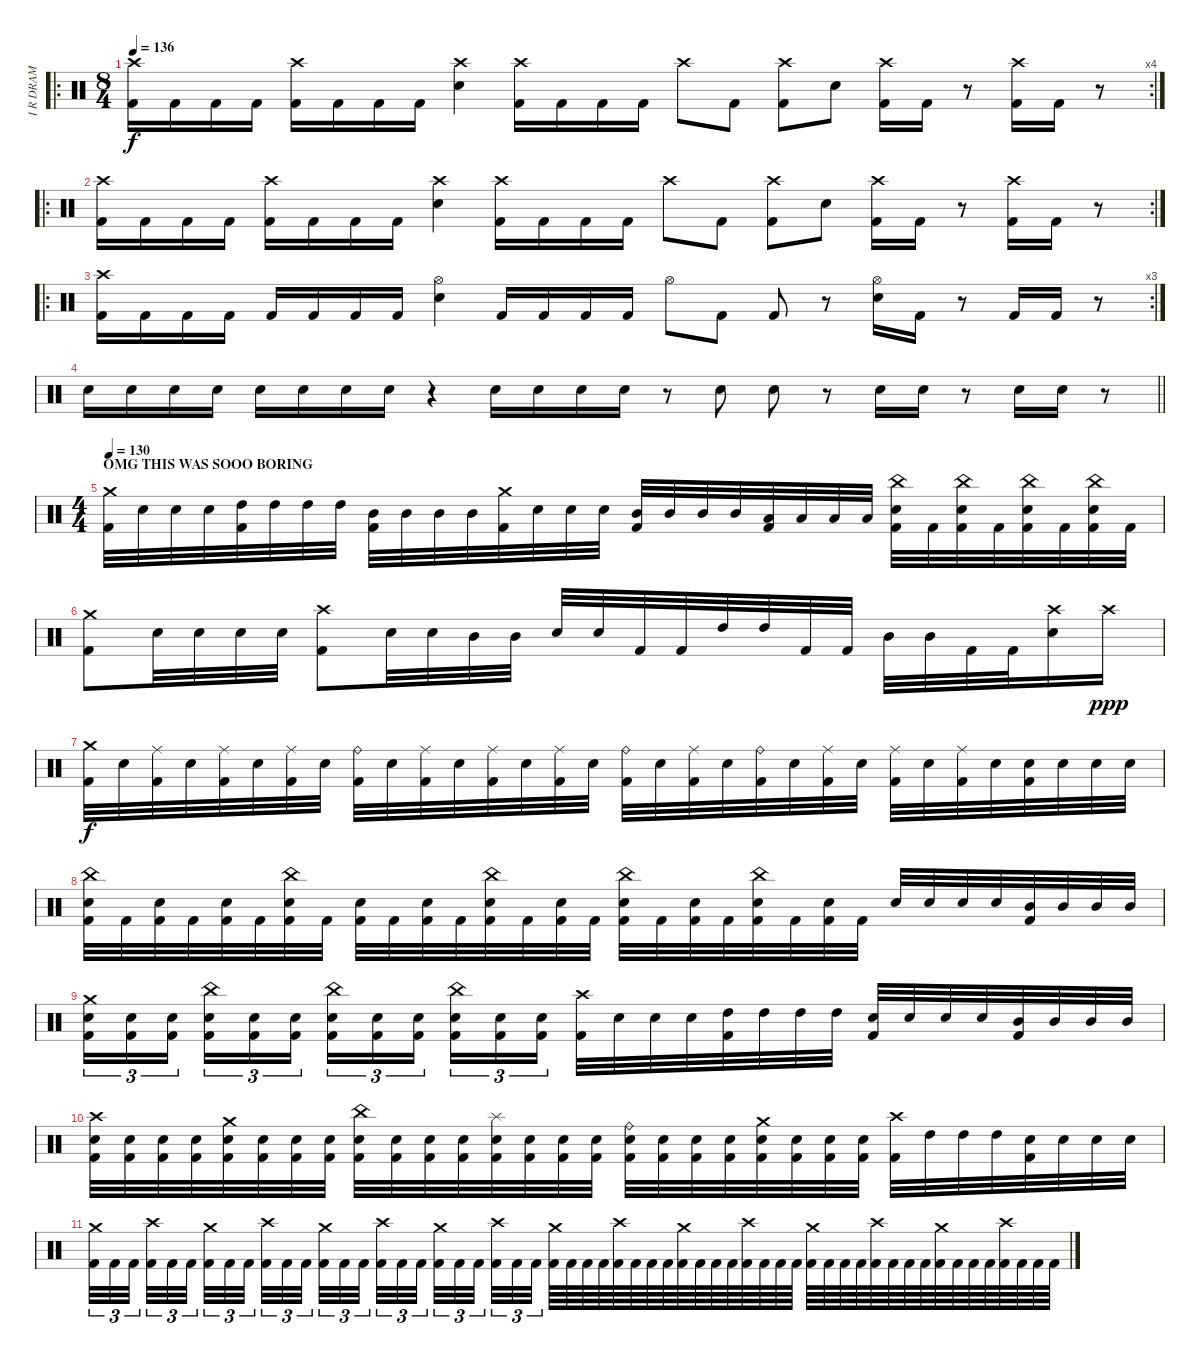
\track ("I R DRAM" "I R DRAM") {instrument percussion}
\staff {score}
\articulation defaults
\ro
\rc 4
\ts (8 4)
\tempo 136
\clef neutral
\ks c
("Crash high (hit)" "Kick (hit) 2").16{dy f} "Kick (hit) 2".16 "Kick (hit) 2".16 "Kick (hit) 2".16 ("Crash high (hit)" "Kick (hit) 2").16 "Kick (hit) 2".16 "Kick (hit) 2".16 "Kick (hit) 2".16 ("Crash high (hit)" "Electric Snare (hit)").4 ("Crash high (hit)" "Kick (hit) 2").16 "Kick (hit) 2".16 "Kick (hit) 2".16 "Kick (hit) 2".16 "Crash high (hit)".8 "Kick (hit) 2".8 ("Crash high (hit)" "Kick (hit) 2").8 "Electric Snare (hit)".8 ("Crash high (hit)" "Kick (hit) 2").16 "Kick (hit) 2".16 r.8 ("Crash high (hit)" "Kick (hit) 2").16 "Kick (hit) 2".16 r.8 |
\ro
\rc 2
("Crash high (hit)" "Kick (hit) 2").16 "Kick (hit) 2".16 "Kick (hit) 2".16 "Kick (hit) 2".16 ("Crash high (hit)" "Kick (hit) 2").16 "Kick (hit) 2".16 "Kick (hit) 2".16 "Kick (hit) 2".16 ("Crash high (hit)" "Electric Snare (hit)").4 ("Crash high (hit)" "Kick (hit) 2").16 "Kick (hit) 2".16 "Kick (hit) 2".16 "Kick (hit) 2".16 "Crash high (hit)".8 "Kick (hit) 2".8 ("Crash high (hit)" "Kick (hit) 2").8 "Electric Snare (hit)".8 ("Crash high (hit)" "Kick (hit) 2").16 "Kick (hit) 2".16 r.8 ("Crash high (hit)" "Kick (hit) 2").16 "Kick (hit) 2".16 r.8 |
\ro
\rc 3
("Crash high (hit)" "Kick (hit) 2").16 "Kick (hit) 2".16 "Kick (hit) 2".16 "Kick (hit) 2".16 "Kick (hit) 2".16 "Kick (hit) 2".16 "Kick (hit) 2".16 "Kick (hit) 2".16 ("Hi-Hat (open)" "Electric Snare (hit)").4 "Kick (hit) 2".16 "Kick (hit) 2".16 "Kick (hit) 2".16 "Kick (hit) 2".16 "Hi-Hat (open)".8 "Kick (hit) 2".8 "Kick (hit) 2".8 r.8 ("Hi-Hat (open)" "Electric Snare (hit)").16 "Kick (hit) 2".16 r.8 "Kick (hit) 2".16 "Kick (hit) 2".16 r.8 |
\barLineRight lightlight "Electric Snare (hit)".16 "Electric Snare (hit)".16 "Electric Snare (hit)".16 "Electric Snare (hit)".16 "Electric Snare (hit)".16 "Electric Snare (hit)".16 "Electric Snare (hit)".16 "Electric Snare (hit)".16
r.4 "Electric Snare (hit)".16 "Electric Snare (hit)".16 "Electric Snare (hit)".16 "Electric Snare (hit)".16 r.8 "Electric Snare (hit)".8 "Electric Snare (hit)".8 r.8 "Electric Snare (hit)".16 "Electric Snare (hit)".16 r.8 "Electric Snare (hit)".16 "Electric Snare (hit)".16 r.8 |
\ts (4 4)
\section ("" "OMG THIS WAS SOOO BORING")
\tempo 130
("Crash medium (hit)" "Kick (hit) 2").32 "Electric Snare (hit)".32 "Electric Snare (hit)".32 "Electric Snare (hit)".32 ("High Tom (hit)" "Kick (hit) 2").32 "High Tom (hit)".32 "High Tom (hit)".32 "High Tom (hit)".32 ("Mid Tom (hit)" "Kick (hit) 2").32 "Mid Tom (hit)".32 "Mid Tom (hit)".32 "Mid Tom (hit)".32 ("Crash medium (hit)" "Kick (hit) 2").32 "Electric Snare (hit)".32 "Electric Snare (hit)".32 "Electric Snare (hit)".32 ("Mid Tom (hit)" "Kick (hit) 2").32 "Mid Tom (hit)".32 "Mid Tom (hit)".32 "Mid Tom (hit)".32 ("Low Tom (hit)" "Kick (hit) 2").32 "Low Tom (hit)".32 "Low Tom (hit)".32 "Low Tom (hit)".32 ("China (hit)" "Electric Snare (hit)" "Kick (hit) 2").32 "Kick (hit) 2".32 ("China (hit)" "Electric Snare (hit)" "Kick (hit) 2").32 "Kick (hit) 2".32 ("China (hit)" "Electric Snare (hit)" "Kick (hit) 2").32 "Kick (hit) 2".32 ("China (hit)" "Electric Snare (hit)" "Kick (hit) 2").32 "Kick (hit) 2".32 |
("Crash medium (hit)" "Kick (hit) 2").8 "Electric Snare (hit)".32 "Electric Snare (hit)".32 "Electric Snare (hit)".32 "Electric Snare (hit)".32 ("Crash high (hit)" "Kick (hit) 2").8 "Electric Snare (hit)".32 "Electric Snare (hit)".32 "Mid Tom (hit)".32 "Mid Tom (hit)".32 "Electric Snare (hit)".32 "Electric Snare (hit)".32 "Kick (hit) 2".32 "Kick (hit) 2".32 "High Tom (hit)".32 "High Tom (hit)".32 "Kick (hit) 2".32 "Kick (hit) 2".32 "Mid Tom (hit)".32 "Mid Tom (hit)".32 "Kick (hit) 2".32 "Kick (hit) 2".32 ("Crash high (hit)" "Electric Snare (hit)").16 "Crash high (hit)".16{dy ppp} |
("Crash medium (hit)" "Kick (hit) 2").32{dy f} "Electric Snare (hit)".32 ("Ride (middle)" "Kick (hit) 2").32 "Electric Snare (hit)".32 ("Ride (middle)" "Kick (hit) 2").32 "Electric Snare (hit)".32 ("Ride (middle)" "Kick (hit) 2").32 "Electric Snare (hit)".32 ("Ride (bell)" "Kick (hit) 2").32 "Electric Snare (hit)".32 ("Ride (middle)" "Kick (hit) 2").32 "Electric Snare (hit)".32 ("Ride (middle)" "Kick (hit) 2").32 "Electric Snare (hit)".32 ("Ride (middle)" "Kick (hit) 2").32 "Electric Snare (hit)".32 ("Ride (bell)" "Kick (hit) 2").32 "Electric Snare (hit)".32 ("Ride (middle)" "Kick (hit) 2").32 "Electric Snare (hit)".32 ("Ride (bell)" "Kick (hit) 2").32 "Electric Snare (hit)".32 ("Ride (middle)" "Kick (hit) 2").32 "Electric Snare (hit)".32 ("Ride (middle)" "Kick (hit) 2").32 "Electric Snare (hit)".32 ("Ride (middle)" "Kick (hit) 2").32 "Electric Snare (hit)".32 ("Electric Snare (hit)" "Kick (hit) 2").32 "Electric Snare (hit)".32 "Electric Snare (hit)".32 "Electric Snare (hit)".32 |
("China (hit)" "Electric Snare (hit)" "Kick (hit) 2").32 "Kick (hit) 2".32 ("Electric Snare (hit)" "Kick (hit) 2").32 "Kick (hit) 2".32 ("Electric Snare (hit)" "Kick (hit) 2").32 "Kick (hit) 2".32 ("China (hit)" "Electric Snare (hit)" "Kick (hit) 2").32 "Kick (hit) 2".32 ("Electric Snare (hit)" "Kick (hit) 2").32 "Kick (hit) 2".32 ("Electric Snare (hit)" "Kick (hit) 2").32 "Kick (hit) 2".32 ("China (hit)" "Electric Snare (hit)" "Kick (hit) 2").32 "Kick (hit) 2".32 ("Electric Snare (hit)" "Kick (hit) 2").32 "Kick (hit) 2".32 ("China (hit)" "Electric Snare (hit)" "Kick (hit) 2").32 "Kick (hit) 2".32 ("Electric Snare (hit)" "Kick (hit) 2").32 "Kick (hit) 2".32 ("China (hit)" "Electric Snare (hit)" "Kick (hit) 2").32 "Kick (hit) 2".32 ("Electric Snare (hit)" "Kick (hit) 2").32 "Kick (hit) 2".32 "Electric Snare (hit)".32 "Electric Snare (hit)".32 "Electric Snare (hit)".32 "Electric Snare (hit)".32 ("Mid Tom (hit)" "Kick (hit) 2").32 "Mid Tom (hit)".32 "Mid Tom (hit)".32 "Mid Tom (hit)".32 |
("Crash medium (hit)" "Electric Snare (hit)" "Kick (hit) 2").16{tu (3 2)} ("Electric Snare (hit)" "Kick (hit) 2").16{tu (3 2)} ("Electric Snare (hit)" "Kick (hit) 2").16{tu (3 2) beam splitsecondary} ("China (hit)" "Electric Snare (hit)" "Kick (hit) 2").16{tu (3 2)} ("Electric Snare (hit)" "Kick (hit) 2").16{tu (3 2)} ("Electric Snare (hit)" "Kick (hit) 2").16{tu (3 2)} ("China (hit)" "Electric Snare (hit)" "Kick (hit) 2").16{tu (3 2)} ("Electric Snare (hit)" "Kick (hit) 2").16{tu (3 2)} ("Electric Snare (hit)" "Kick (hit) 2").16{tu (3 2) beam splitsecondary} ("China (hit)" "Electric Snare (hit)" "Kick (hit) 2").16{tu (3 2)} ("Electric Snare (hit)" "Kick (hit) 2").16{tu (3 2)} ("Electric Snare (hit)" "Kick (hit) 2").16{tu (3 2)} ("Crash high (hit)" "Kick (hit) 2").32 "Electric Snare (hit)".32 "Electric Snare (hit)".32 "Electric Snare (hit)".32 ("High Tom (hit)" "Kick (hit) 2").32 "High Tom (hit)".32 "High Tom (hit)".32 "High Tom (hit)".32 ("Electric Snare (hit)" "Kick (hit) 2").32 "Electric Snare (hit)".32 "Electric Snare (hit)".32 "Electric Snare (hit)".32 ("Mid Tom (hit)" "Kick (hit) 2").32 "Mid Tom (hit)".32 "Mid Tom (hit)".32 "Mid Tom (hit)".32 |
("Crash high (hit)" "Electric Snare (hit)" "Kick (hit) 2").32 ("Electric Snare (hit)" "Kick (hit) 2").32 ("Electric Snare (hit)" "Kick (hit) 2").32 ("Electric Snare (hit)" "Kick (hit) 2").32 ("Crash medium (hit)" "Electric Snare (hit)" "Kick (hit) 2").32 ("Electric Snare (hit)" "Kick (hit) 2").32 ("Electric Snare (hit)" "Kick (hit) 2").32 ("Electric Snare (hit)" "Kick (hit) 2").32 ("China (hit)" "Electric Snare (hit)" "Kick (hit) 2").32 ("Electric Snare (hit)" "Kick (hit) 2").32 ("Electric Snare (hit)" "Kick (hit) 2").32 ("Electric Snare (hit)" "Kick (hit) 2").32 ("Splash (hit)" "Electric Snare (hit)" "Kick (hit) 2").32 ("Electric Snare (hit)" "Kick (hit) 2").32 ("Electric Snare (hit)" "Kick (hit) 2").32 ("Electric Snare (hit)" "Kick (hit) 2").32 ("Ride (bell)" "Electric Snare (hit)" "Kick (hit) 2").32 ("Electric Snare (hit)" "Kick (hit) 2").32 ("Electric Snare (hit)" "Kick (hit) 2").32 ("Electric Snare (hit)" "Kick (hit) 2").32 ("Crash medium (hit)" "Electric Snare (hit)" "Kick (hit) 2").32 ("Electric Snare (hit)" "Kick (hit) 2").32 ("Electric Snare (hit)" "Kick (hit) 2").32 ("Electric Snare (hit)" "Kick (hit) 2").32 ("Crash high (hit)" "Kick (hit) 2").32 "High Tom (hit)".32 "High Tom (hit)".32 "High Tom (hit)".32 ("Electric Snare (hit)" "Kick (hit) 2").32 "Electric Snare (hit)".32 "Electric Snare (hit)".32 "Electric Snare (hit)".32 |
("Crash medium (hit)" "Kick (hit) 2").32{tu (3 2)} "Kick (hit) 2".32{tu (3 2)} "Kick (hit) 2".32{tu (3 2) beam splitsecondary} ("Crash high (hit)" "Kick (hit) 2").32{tu (3 2)} "Kick (hit) 2".32{tu (3 2)} "Kick (hit) 2".32{tu (3 2) beam splitsecondary} ("Crash medium (hit)" "Kick (hit) 2").32{tu (3 2)} "Kick (hit) 2".32{tu (3 2)} "Kick (hit) 2".32{tu (3 2) beam splitsecondary} ("Crash high (hit)" "Kick (hit) 2").32{tu (3 2)} "Kick (hit) 2".32{tu (3 2)} "Kick (hit) 2".32{tu (3 2)} ("Crash medium (hit)" "Kick (hit) 2").32{tu (3 2)} "Kick (hit) 2".32{tu (3 2)} "Kick (hit) 2".32{tu (3 2) beam splitsecondary} ("Crash high (hit)" "Kick (hit) 2").32{tu (3 2)} "Kick (hit) 2".32{tu (3 2)} "Kick (hit) 2".32{tu (3 2) beam splitsecondary} ("Crash medium (hit)" "Kick (hit) 2").32{tu (3 2)} "Kick (hit) 2".32{tu (3 2)} "Kick (hit) 2".32{tu (3 2) beam splitsecondary} ("Crash high (hit)" "Kick (hit) 2").32{tu (3 2)} "Kick (hit) 2".32{tu (3 2)} "Kick (hit) 2".32{tu (3 2)} ("Crash medium (hit)" "Kick (hit) 2").64 "Kick (hit) 2".64 "Kick (hit) 2".64 "Kick (hit) 2".64 ("Crash high (hit)" "Kick (hit) 2").64 "Kick (hit) 2".64 "Kick (hit) 2".64 "Kick (hit) 2".64 ("Crash medium (hit)" "Kick (hit) 2").64 "Kick (hit) 2".64 "Kick (hit) 2".64 "Kick (hit) 2".64 ("Crash high (hit)" "Kick (hit) 2").64 "Kick (hit) 2".64 "Kick (hit) 2".64 "Kick (hit) 2".64 ("Crash medium (hit)" "Kick (hit) 2").64 "Kick (hit) 2".64 "Kick (hit) 2".64 "Kick (hit) 2".64 ("Crash high (hit)" "Kick (hit) 2").64 "Kick (hit) 2".64 "Kick (hit) 2".64 "Kick (hit) 2".64 ("Crash medium (hit)" "Kick (hit) 2").64 "Kick (hit) 2".64 "Kick (hit) 2".64 "Kick (hit) 2".64 ("Crash high (hit)" "Kick (hit) 2").64 "Kick (hit) 2".64 "Kick (hit) 2".64 "Kick (hit) 2".64
